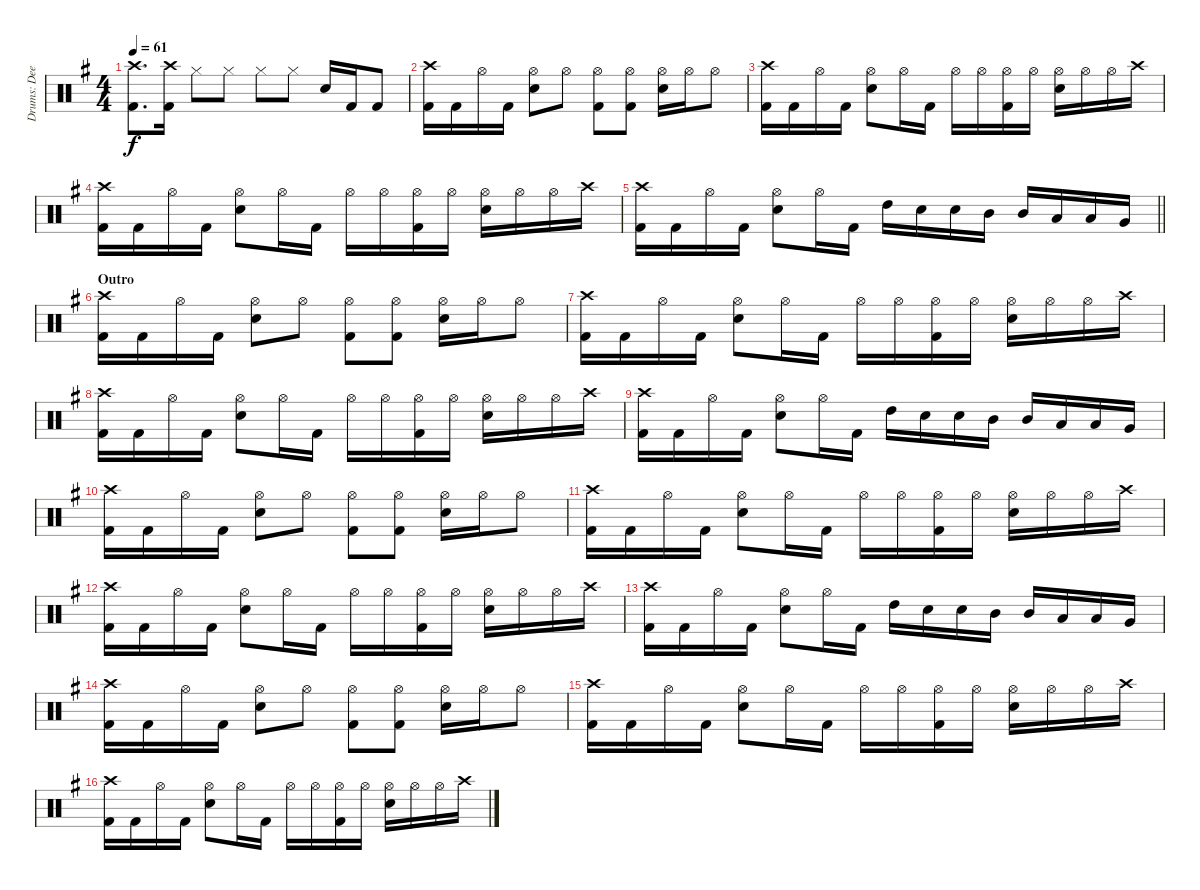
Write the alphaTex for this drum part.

\track ("Drums: Deen" "Drums: Dee") {instrument percussion}
\staff {score}
\articulation defaults
\ts (4 4)
\tempo 61
\clef neutral
\ks g
("Crash high (hit)" "Kick (hit) 2").8{d dy f} ("Crash high (hit)" "Kick (hit) 2").16 "Hi-Hat (closed)".8 "Hi-Hat (closed)".8 "Hi-Hat (closed)".8 "Hi-Hat (closed)".8 "Electric Snare (hit)".16 "Kick (hit) 2".16 "Kick (hit) 2".8 |
("Crash high (hit)" "Kick (hit) 2").16 "Kick (hit) 2".16 "Hi-Hat (open)".16 "Kick (hit) 2".16 ("Hi-Hat (open)" "Electric Snare (hit)").8 "Hi-Hat (open)".8 ("Hi-Hat (open)" "Kick (hit) 2").8 ("Hi-Hat (open)" "Kick (hit) 2").8 ("Hi-Hat (open)" "Electric Snare (hit)").16 "Hi-Hat (open)".16 "Hi-Hat (open)".8 |
("Crash high (hit)" "Kick (hit) 2").16 "Kick (hit) 2".16 "Hi-Hat (open)".16 "Kick (hit) 2".16 ("Hi-Hat (open)" "Electric Snare (hit)").8 "Hi-Hat (open)".16 "Kick (hit) 2".16 "Hi-Hat (open)".16 "Hi-Hat (open)".16 ("Hi-Hat (open)" "Kick (hit) 2").16 "Hi-Hat (open)".16 ("Hi-Hat (open)" "Electric Snare (hit)").16 "Hi-Hat (open)".16 "Hi-Hat (open)".16 "Crash high (hit)".16 |
("Crash high (hit)" "Kick (hit) 2").16 "Kick (hit) 2".16 "Hi-Hat (open)".16 "Kick (hit) 2".16 ("Hi-Hat (open)" "Electric Snare (hit)").8 "Hi-Hat (open)".16 "Kick (hit) 2".16 "Hi-Hat (open)".16 "Hi-Hat (open)".16 ("Hi-Hat (open)" "Kick (hit) 2").16 "Hi-Hat (open)".16 ("Hi-Hat (open)" "Electric Snare (hit)").16 "Hi-Hat (open)".16 "Hi-Hat (open)".16 "Crash high (hit)".16 |
\barLineRight lightlight
("Crash high (hit)" "Kick (hit) 2").16 "Kick (hit) 2".16 "Hi-Hat (open)".16 "Kick (hit) 2".16 ("Hi-Hat (open)" "Electric Snare (hit)").8 "Hi-Hat (open)".16 "Kick (hit) 2".16 "High Tom (hit)".16 "Electric Snare (hit)".16 "Electric Snare (hit)".16 "Mid Tom (hit)".16 "Mid Tom (hit)".16 "Low Tom (hit)".16 "Low Tom (hit)".16 "Very Low Tom (hit)".16 |
\section ("" "Outro")
("Crash high (hit)" "Kick (hit) 2").16 "Kick (hit) 2".16 "Hi-Hat (open)".16 "Kick (hit) 2".16 ("Hi-Hat (open)" "Electric Snare (hit)").8 "Hi-Hat (open)".8 ("Hi-Hat (open)" "Kick (hit) 2").8 ("Hi-Hat (open)" "Kick (hit) 2").8 ("Hi-Hat (open)" "Electric Snare (hit)").16 "Hi-Hat (open)".16 "Hi-Hat (open)".8 |
("Crash high (hit)" "Kick (hit) 2").16 "Kick (hit) 2".16 "Hi-Hat (open)".16 "Kick (hit) 2".16 ("Hi-Hat (open)" "Electric Snare (hit)").8 "Hi-Hat (open)".16 "Kick (hit) 2".16 "Hi-Hat (open)".16 "Hi-Hat (open)".16 ("Hi-Hat (open)" "Kick (hit) 2").16 "Hi-Hat (open)".16 ("Hi-Hat (open)" "Electric Snare (hit)").16 "Hi-Hat (open)".16 "Hi-Hat (open)".16 "Crash high (hit)".16 |
("Crash high (hit)" "Kick (hit) 2").16 "Kick (hit) 2".16 "Hi-Hat (open)".16 "Kick (hit) 2".16 ("Hi-Hat (open)" "Electric Snare (hit)").8 "Hi-Hat (open)".16 "Kick (hit) 2".16 "Hi-Hat (open)".16 "Hi-Hat (open)".16 ("Hi-Hat (open)" "Kick (hit) 2").16 "Hi-Hat (open)".16 ("Hi-Hat (open)" "Electric Snare (hit)").16 "Hi-Hat (open)".16 "Hi-Hat (open)".16 "Crash high (hit)".16 |
("Crash high (hit)" "Kick (hit) 2").16 "Kick (hit) 2".16 "Hi-Hat (open)".16 "Kick (hit) 2".16 ("Hi-Hat (open)" "Electric Snare (hit)").8 "Hi-Hat (open)".16 "Kick (hit) 2".16 "High Tom (hit)".16 "Electric Snare (hit)".16 "Electric Snare (hit)".16 "Mid Tom (hit)".16 "Mid Tom (hit)".16 "Low Tom (hit)".16 "Low Tom (hit)".16 "Very Low Tom (hit)".16 |
("Crash high (hit)" "Kick (hit) 2").16 "Kick (hit) 2".16 "Hi-Hat (open)".16 "Kick (hit) 2".16 ("Hi-Hat (open)" "Electric Snare (hit)").8 "Hi-Hat (open)".8 ("Hi-Hat (open)" "Kick (hit) 2").8 ("Hi-Hat (open)" "Kick (hit) 2").8 ("Hi-Hat (open)" "Electric Snare (hit)").16 "Hi-Hat (open)".16 "Hi-Hat (open)".8 |
("Crash high (hit)" "Kick (hit) 2").16 "Kick (hit) 2".16 "Hi-Hat (open)".16 "Kick (hit) 2".16 ("Hi-Hat (open)" "Electric Snare (hit)").8 "Hi-Hat (open)".16 "Kick (hit) 2".16 "Hi-Hat (open)".16 "Hi-Hat (open)".16 ("Hi-Hat (open)" "Kick (hit) 2").16 "Hi-Hat (open)".16 ("Hi-Hat (open)" "Electric Snare (hit)").16 "Hi-Hat (open)".16 "Hi-Hat (open)".16 "Crash high (hit)".16 |
("Crash high (hit)" "Kick (hit) 2").16 "Kick (hit) 2".16 "Hi-Hat (open)".16 "Kick (hit) 2".16 ("Hi-Hat (open)" "Electric Snare (hit)").8 "Hi-Hat (open)".16 "Kick (hit) 2".16 "Hi-Hat (open)".16 "Hi-Hat (open)".16 ("Hi-Hat (open)" "Kick (hit) 2").16 "Hi-Hat (open)".16 ("Hi-Hat (open)" "Electric Snare (hit)").16 "Hi-Hat (open)".16 "Hi-Hat (open)".16 "Crash high (hit)".16 |
("Crash high (hit)" "Kick (hit) 2").16 "Kick (hit) 2".16 "Hi-Hat (open)".16 "Kick (hit) 2".16 ("Hi-Hat (open)" "Electric Snare (hit)").8 "Hi-Hat (open)".16 "Kick (hit) 2".16 "High Tom (hit)".16 "Electric Snare (hit)".16 "Electric Snare (hit)".16 "Mid Tom (hit)".16 "Mid Tom (hit)".16 "Low Tom (hit)".16 "Low Tom (hit)".16 "Very Low Tom (hit)".16 |
("Crash high (hit)" "Kick (hit) 2").16 "Kick (hit) 2".16 "Hi-Hat (open)".16 "Kick (hit) 2".16 ("Hi-Hat (open)" "Electric Snare (hit)").8 "Hi-Hat (open)".8 ("Hi-Hat (open)" "Kick (hit) 2").8 ("Hi-Hat (open)" "Kick (hit) 2").8 ("Hi-Hat (open)" "Electric Snare (hit)").16 "Hi-Hat (open)".16 "Hi-Hat (open)".8 |
("Crash high (hit)" "Kick (hit) 2").16 "Kick (hit) 2".16 "Hi-Hat (open)".16 "Kick (hit) 2".16 ("Hi-Hat (open)" "Electric Snare (hit)").8 "Hi-Hat (open)".16 "Kick (hit) 2".16 "Hi-Hat (open)".16 "Hi-Hat (open)".16 ("Hi-Hat (open)" "Kick (hit) 2").16 "Hi-Hat (open)".16 ("Hi-Hat (open)" "Electric Snare (hit)").16 "Hi-Hat (open)".16 "Hi-Hat (open)".16 "Crash high (hit)".16 |
("Crash high (hit)" "Kick (hit) 2").16 "Kick (hit) 2".16 "Hi-Hat (open)".16 "Kick (hit) 2".16 ("Hi-Hat (open)" "Electric Snare (hit)").8 "Hi-Hat (open)".16 "Kick (hit) 2".16 "Hi-Hat (open)".16 "Hi-Hat (open)".16 ("Hi-Hat (open)" "Kick (hit) 2").16 "Hi-Hat (open)".16 ("Hi-Hat (open)" "Electric Snare (hit)").16 "Hi-Hat (open)".16 "Hi-Hat (open)".16 "Crash high (hit)".16
